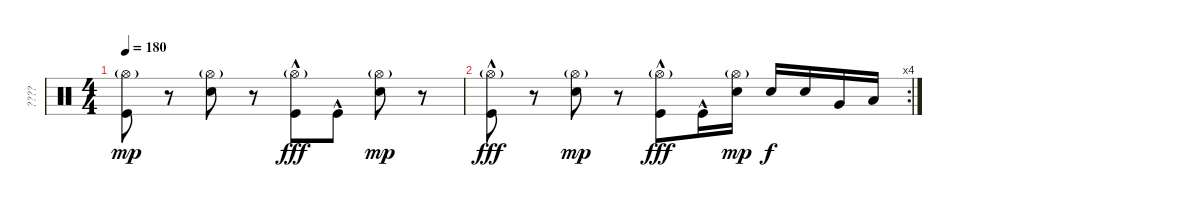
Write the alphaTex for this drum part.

\track ("????" "????") {instrument percussion}
\staff {score}
\articulation defaults
\ts (4 4)
\tempo 180
\clef neutral
\ks c
("Hi-Hat (open)"{g} "Kick (hit)").8{dy mp} r.8 ("Hi-Hat (open)"{g} "Snare (hit) 2").8 r.8 ("Hi-Hat (open)"{g} "Kick (hit)"{hac}).8{dy fff} "Kick (hit)"{hac}.8 ("Hi-Hat (open)"{g} "Snare (hit) 2").8{dy mp} r.8 |
\rc 4
("Hi-Hat (open)"{g} "Kick (hit)"{hac}).8{dy fff} r.8 ("Hi-Hat (open)"{g} "Snare (hit) 2").8{dy mp} r.8 ("Hi-Hat (open)"{g} "Kick (hit)"{hac}).8{dy fff} "Kick (hit)"{hac}.16 ("Hi-Hat (open)"{g} "Snare (hit) 2").16{dy mp} "Snare (hit) 2".16{dy f} "Snare (hit) 2".16 "Very Low Tom (hit)".16 "Low Floor Tom (hit)".16
